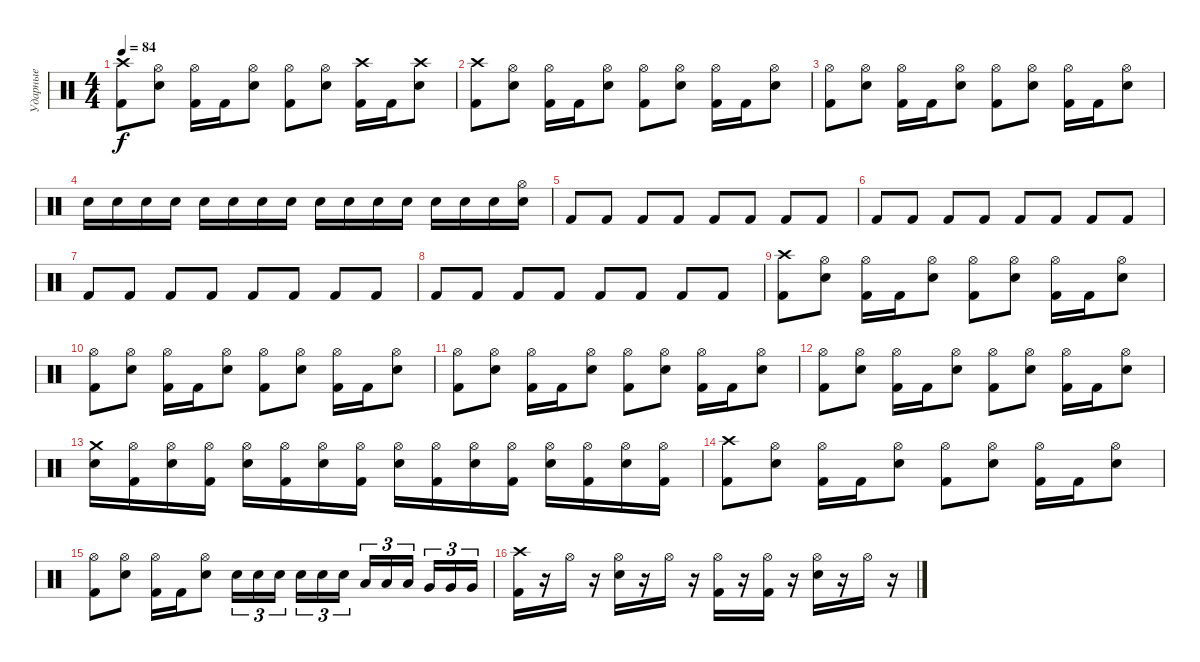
\track ("Ударные" "Ударные") {instrument percussion}
\staff {score}
\articulation defaults
\ts (4 4)
\tempo 84
\clef neutral
\ks c
("Crash high (hit)" "Kick (hit) 2").8{dy f} ("Hi-Hat (open)" "Snare (hit) 2").8 ("Hi-Hat (open)" "Kick (hit) 2").16 "Kick (hit) 2".16 ("Hi-Hat (open)" "Snare (hit) 2").8 ("Hi-Hat (open)" "Kick (hit) 2").8 ("Hi-Hat (open)" "Snare (hit) 2").8 ("Crash high (hit)" "Kick (hit) 2").16 "Kick (hit) 2".16 ("Crash high (hit)" "Snare (hit) 2").8 |
("Crash high (hit)" "Kick (hit) 2").8 ("Hi-Hat (open)" "Snare (hit) 2").8 ("Hi-Hat (open)" "Kick (hit) 2").16 "Kick (hit) 2".16 ("Hi-Hat (open)" "Snare (hit) 2").8 ("Hi-Hat (open)" "Kick (hit) 2").8 ("Hi-Hat (open)" "Snare (hit) 2").8 ("Hi-Hat (open)" "Kick (hit) 2").16 "Kick (hit) 2".16 ("Hi-Hat (open)" "Snare (hit) 2").8 |
("Hi-Hat (open)" "Kick (hit) 2").8 ("Hi-Hat (open)" "Snare (hit) 2").8 ("Hi-Hat (open)" "Kick (hit) 2").16 "Kick (hit) 2".16 ("Hi-Hat (open)" "Snare (hit) 2").8 ("Hi-Hat (open)" "Kick (hit) 2").8 ("Hi-Hat (open)" "Snare (hit) 2").8 ("Hi-Hat (open)" "Kick (hit) 2").16 "Kick (hit) 2".16 ("Hi-Hat (open)" "Snare (hit) 2").8 |
"Snare (hit) 2".16 "Snare (hit) 2".16 "Snare (hit) 2".16 "Snare (hit) 2".16 "Snare (hit) 2".16 "Snare (hit) 2".16 "Snare (hit) 2".16 "Snare (hit) 2".16 "Snare (hit) 2".16 "Snare (hit) 2".16 "Snare (hit) 2".16 "Snare (hit) 2".16 "Snare (hit) 2".16 "Snare (hit) 2".16 "Snare (hit) 2".16 ("Hi-Hat (open)" "Snare (hit) 2").16 |
"Kick (hit) 2".8 "Kick (hit) 2".8 "Kick (hit) 2".8 "Kick (hit) 2".8 "Kick (hit) 2".8 "Kick (hit) 2".8 "Kick (hit) 2".8 "Kick (hit) 2".8 |
"Kick (hit) 2".8 "Kick (hit) 2".8 "Kick (hit) 2".8 "Kick (hit) 2".8 "Kick (hit) 2".8 "Kick (hit) 2".8 "Kick (hit) 2".8 "Kick (hit) 2".8 |
"Kick (hit) 2".8 "Kick (hit) 2".8 "Kick (hit) 2".8 "Kick (hit) 2".8 "Kick (hit) 2".8 "Kick (hit) 2".8 "Kick (hit) 2".8 "Kick (hit) 2".8 |
"Kick (hit) 2".8 "Kick (hit) 2".8 "Kick (hit) 2".8 "Kick (hit) 2".8 "Kick (hit) 2".8 "Kick (hit) 2".8 "Kick (hit) 2".8 "Kick (hit) 2".8 |
("Crash high (hit)" "Kick (hit) 2").8 ("Hi-Hat (open)" "Snare (hit) 2").8 ("Hi-Hat (open)" "Kick (hit) 2").16 "Kick (hit) 2".16 ("Hi-Hat (open)" "Snare (hit) 2").8 ("Hi-Hat (open)" "Kick (hit) 2").8 ("Hi-Hat (open)" "Snare (hit) 2").8 ("Hi-Hat (open)" "Kick (hit) 2").16 "Kick (hit) 2".16 ("Hi-Hat (open)" "Snare (hit) 2").8 |
("Hi-Hat (open)" "Kick (hit) 2").8 ("Hi-Hat (open)" "Snare (hit) 2").8 ("Hi-Hat (open)" "Kick (hit) 2").16 "Kick (hit) 2".16 ("Hi-Hat (open)" "Snare (hit) 2").8 ("Hi-Hat (open)" "Kick (hit) 2").8 ("Hi-Hat (open)" "Snare (hit) 2").8 ("Hi-Hat (open)" "Kick (hit) 2").16 "Kick (hit) 2".16 ("Hi-Hat (open)" "Snare (hit) 2").8 |
("Hi-Hat (open)" "Kick (hit) 2").8 ("Hi-Hat (open)" "Snare (hit) 2").8 ("Hi-Hat (open)" "Kick (hit) 2").16 "Kick (hit) 2".16 ("Hi-Hat (open)" "Snare (hit) 2").8 ("Hi-Hat (open)" "Kick (hit) 2").8 ("Hi-Hat (open)" "Snare (hit) 2").8 ("Hi-Hat (open)" "Kick (hit) 2").16 "Kick (hit) 2".16 ("Hi-Hat (open)" "Snare (hit) 2").8 |
("Hi-Hat (open)" "Kick (hit) 2").8 ("Hi-Hat (open)" "Snare (hit) 2").8 ("Hi-Hat (open)" "Kick (hit) 2").16 "Kick (hit) 2".16 ("Hi-Hat (open)" "Snare (hit) 2").8 ("Hi-Hat (open)" "Kick (hit) 2").8 ("Hi-Hat (open)" "Snare (hit) 2").8 ("Hi-Hat (open)" "Kick (hit) 2").16 "Kick (hit) 2".16 ("Hi-Hat (open)" "Snare (hit) 2").8 |
("Crash medium (hit)" "Snare (hit) 2").16 ("Hi-Hat (open)" "Kick (hit) 2").16 ("Hi-Hat (open)" "Snare (hit) 2").16 ("Hi-Hat (open)" "Kick (hit) 2").16 ("Hi-Hat (open)" "Snare (hit) 2").16 ("Hi-Hat (open)" "Kick (hit) 2").16 ("Hi-Hat (open)" "Snare (hit) 2").16 ("Hi-Hat (open)" "Kick (hit) 2").16 ("Hi-Hat (open)" "Snare (hit) 2").16 ("Hi-Hat (open)" "Kick (hit) 2").16 ("Hi-Hat (open)" "Snare (hit) 2").16 ("Hi-Hat (open)" "Kick (hit) 2").16 ("Hi-Hat (open)" "Snare (hit) 2").16 ("Hi-Hat (open)" "Kick (hit) 2").16 ("Hi-Hat (open)" "Snare (hit) 2").16 ("Hi-Hat (open)" "Kick (hit) 2").16 |
("Crash high (hit)" "Kick (hit) 2").8 ("Hi-Hat (open)" "Snare (hit) 2").8 ("Hi-Hat (open)" "Kick (hit) 2").16 "Kick (hit) 2".16 ("Hi-Hat (open)" "Snare (hit) 2").8 ("Hi-Hat (open)" "Kick (hit) 2").8 ("Hi-Hat (open)" "Snare (hit) 2").8 ("Hi-Hat (open)" "Kick (hit) 2").16 "Kick (hit) 2".16 ("Hi-Hat (open)" "Snare (hit) 2").8 |
("Hi-Hat (open)" "Kick (hit) 2").8 ("Hi-Hat (open)" "Snare (hit) 2").8 ("Hi-Hat (open)" "Kick (hit) 2").16 "Kick (hit) 2".16 ("Hi-Hat (open)" "Snare (hit) 2").8 "Snare (hit) 2".16{tu (3 2)} "Snare (hit) 2".16{tu (3 2)} "Snare (hit) 2".16{tu (3 2) beam splitsecondary} "Snare (hit) 2".16{tu (3 2)} "Snare (hit) 2".16{tu (3 2)} "Snare (hit) 2".16{tu (3 2)} "Low Tom (hit)".16{tu (3 2)} "Low Tom (hit)".16{tu (3 2)} "Low Tom (hit)".16{tu (3 2) beam splitsecondary} "Very Low Tom (hit)".16{tu (3 2)} "Very Low Tom (hit)".16{tu (3 2)} "Very Low Tom (hit)".16{tu (3 2)} |
("Crash high (hit)" "Kick (hit) 2").16 r.16 "Hi-Hat (open)".16 r.16 ("Hi-Hat (open)" "Snare (hit) 2").16 r.16 "Hi-Hat (open)".16 r.16 ("Hi-Hat (open)" "Kick (hit) 2").16 r.16 ("Hi-Hat (open)" "Kick (hit) 2").16 r.16 ("Hi-Hat (open)" "Snare (hit) 2").16 r.16 "Hi-Hat (open)".16 r.16
